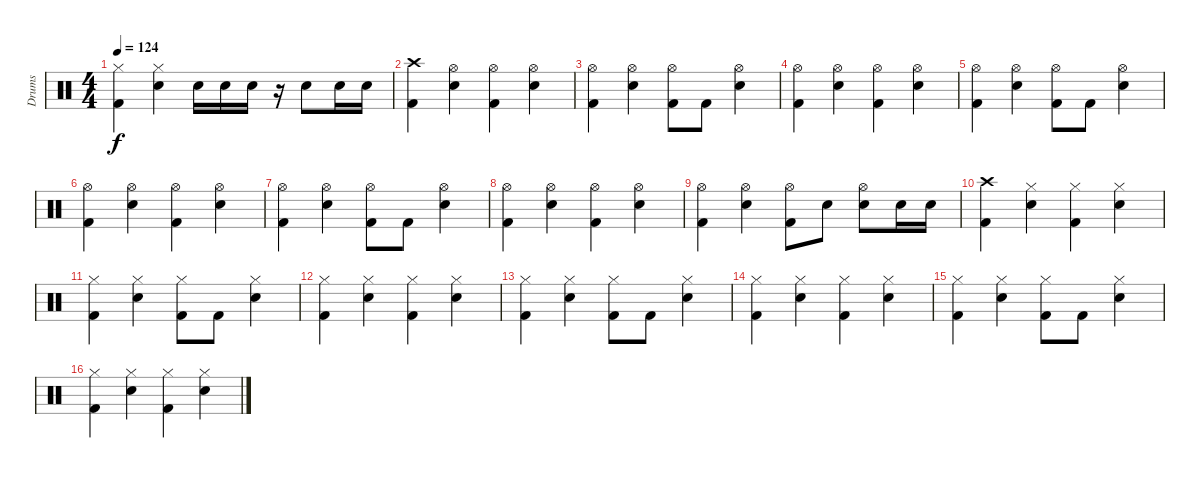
\track ("Drums" "Drums") {instrument percussion}
\staff {score}
\articulation defaults
\ts (4 4)
\tempo 124
\clef neutral
\ks c
("Hi-Hat (closed)" "Kick (hit) 2").4{dy f} ("Hi-Hat (closed)" "Snare (hit) 2").4 "Snare (hit) 2".16 "Snare (hit) 2".16 "Snare (hit) 2".16 r.16 "Snare (hit) 2".8 "Snare (hit) 2".16 "Snare (hit) 2".16 |
("Crash high (hit)" "Kick (hit) 2").4 ("Hi-Hat (open)" "Snare (hit) 2").4 ("Hi-Hat (open)" "Kick (hit) 2").4 ("Hi-Hat (open)" "Snare (hit) 2").4 |
("Hi-Hat (open)" "Kick (hit) 2").4 ("Hi-Hat (open)" "Snare (hit) 2").4 ("Hi-Hat (open)" "Kick (hit) 2").8 "Kick (hit) 2".8 ("Hi-Hat (open)" "Snare (hit) 2").4 |
("Hi-Hat (open)" "Kick (hit) 2").4 ("Hi-Hat (open)" "Snare (hit) 2").4 ("Hi-Hat (open)" "Kick (hit) 2").4 ("Hi-Hat (open)" "Snare (hit) 2").4 |
("Hi-Hat (open)" "Kick (hit) 2").4 ("Hi-Hat (open)" "Snare (hit) 2").4 ("Hi-Hat (open)" "Kick (hit) 2").8 "Kick (hit) 2".8 ("Hi-Hat (open)" "Snare (hit) 2").4 |
("Hi-Hat (open)" "Kick (hit) 2").4 ("Hi-Hat (open)" "Snare (hit) 2").4 ("Hi-Hat (open)" "Kick (hit) 2").4 ("Hi-Hat (open)" "Snare (hit) 2").4 |
("Hi-Hat (open)" "Kick (hit) 2").4 ("Hi-Hat (open)" "Snare (hit) 2").4 ("Hi-Hat (open)" "Kick (hit) 2").8 "Kick (hit) 2".8 ("Hi-Hat (open)" "Snare (hit) 2").4 |
("Hi-Hat (open)" "Kick (hit) 2").4 ("Hi-Hat (open)" "Snare (hit) 2").4 ("Hi-Hat (open)" "Kick (hit) 2").4 ("Hi-Hat (open)" "Snare (hit) 2").4 |
("Hi-Hat (open)" "Kick (hit) 2").4 ("Hi-Hat (open)" "Snare (hit) 2").4 ("Hi-Hat (open)" "Kick (hit) 2").8 "Snare (hit) 2".8 ("Hi-Hat (open)" "Snare (hit) 2").8 "Snare (hit) 2".16 "Snare (hit) 2".16 |
("Crash high (hit)" "Kick (hit) 2").4 ("Hi-Hat (closed)" "Snare (hit) 2").4 ("Hi-Hat (closed)" "Kick (hit) 2").4 ("Hi-Hat (closed)" "Snare (hit) 2").4 |
("Hi-Hat (closed)" "Kick (hit) 2").4 ("Hi-Hat (closed)" "Snare (hit) 2").4 ("Hi-Hat (closed)" "Kick (hit) 2").8 "Kick (hit) 2".8 ("Hi-Hat (closed)" "Snare (hit) 2").4 |
("Hi-Hat (closed)" "Kick (hit) 2").4 ("Hi-Hat (closed)" "Snare (hit) 2").4 ("Hi-Hat (closed)" "Kick (hit) 2").4 ("Hi-Hat (closed)" "Snare (hit) 2").4 |
("Hi-Hat (closed)" "Kick (hit) 2").4 ("Hi-Hat (closed)" "Snare (hit) 2").4 ("Hi-Hat (closed)" "Kick (hit) 2").8 "Kick (hit) 2".8 ("Hi-Hat (closed)" "Snare (hit) 2").4 |
("Hi-Hat (closed)" "Kick (hit) 2").4 ("Hi-Hat (closed)" "Snare (hit) 2").4 ("Hi-Hat (closed)" "Kick (hit) 2").4 ("Hi-Hat (closed)" "Snare (hit) 2").4 |
("Hi-Hat (closed)" "Kick (hit) 2").4 ("Hi-Hat (closed)" "Snare (hit) 2").4 ("Hi-Hat (closed)" "Kick (hit) 2").8 "Kick (hit) 2".8 ("Hi-Hat (closed)" "Snare (hit) 2").4 |
("Hi-Hat (closed)" "Kick (hit) 2").4 ("Hi-Hat (closed)" "Snare (hit) 2").4 ("Hi-Hat (closed)" "Kick (hit) 2").4 ("Hi-Hat (closed)" "Snare (hit) 2").4
